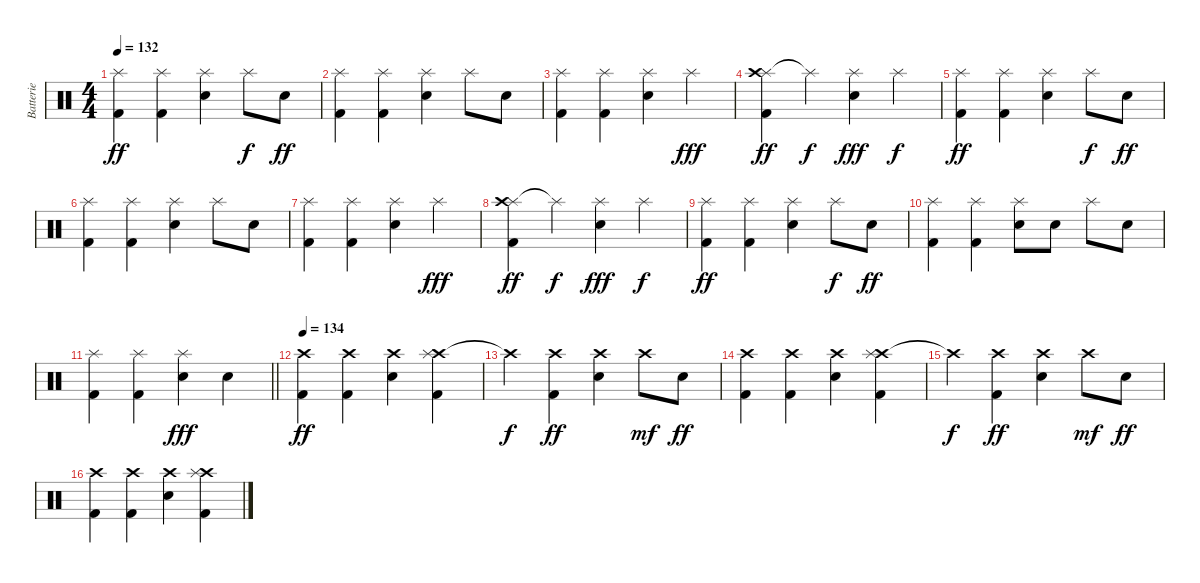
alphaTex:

\track ("Batterie" "Batterie") {instrument percussion}
\staff {score}
\articulation defaults
\ts (4 4)
\tempo 132
\clef neutral
\ks c
("Splash (hit)" "Kick (hit) 2").4{dy ff} ("Splash (hit)" "Kick (hit) 2").4 ("Splash (hit)" "Electric Snare (hit)").4 "Splash (hit)".8{dy f} "Electric Snare (hit)".8{dy ff} |
("Splash (hit)" "Kick (hit) 2").4 ("Splash (hit)" "Kick (hit) 2").4 ("Splash (hit)" "Electric Snare (hit)").4 "Splash (hit)".8 "Electric Snare (hit)".8 |
("Splash (hit)" "Kick (hit) 2").4 ("Splash (hit)" "Kick (hit) 2").4 ("Splash (hit)" "Electric Snare (hit)").4 "Splash (hit)".4{dy fff} |
("Splash (hit)" "Crash high (hit)" "Kick (hit) 2").4{dy ff} "Splash (hit)"{t}.4{dy f} ("Splash (hit)" "Electric Snare (hit)").4{dy fff} "Splash (hit)".4{dy f} |
("Splash (hit)" "Kick (hit) 2").4{dy ff} ("Splash (hit)" "Kick (hit) 2").4 ("Splash (hit)" "Electric Snare (hit)").4 "Splash (hit)".8{dy f} "Electric Snare (hit)".8{dy ff} |
("Splash (hit)" "Kick (hit) 2").4 ("Splash (hit)" "Kick (hit) 2").4 ("Splash (hit)" "Electric Snare (hit)").4 "Splash (hit)".8 "Electric Snare (hit)".8 |
("Splash (hit)" "Kick (hit) 2").4 ("Splash (hit)" "Kick (hit) 2").4 ("Splash (hit)" "Electric Snare (hit)").4 "Splash (hit)".4{dy fff} |
("Splash (hit)" "Crash high (hit)" "Kick (hit) 2").4{dy ff} "Splash (hit)"{t}.4{dy f} ("Splash (hit)" "Electric Snare (hit)").4{dy fff} "Splash (hit)".4{dy f} |
("Splash (hit)" "Kick (hit) 2").4{dy ff} ("Splash (hit)" "Kick (hit) 2").4 ("Splash (hit)" "Electric Snare (hit)").4 "Splash (hit)".8{dy f} "Electric Snare (hit)".8{dy ff} |
("Splash (hit)" "Kick (hit) 2").4 ("Splash (hit)" "Kick (hit) 2").4 ("Splash (hit)" "Electric Snare (hit)").8 "Electric Snare (hit)".8 "Splash (hit)".8 "Electric Snare (hit)".8 |
\barLineRight lightlight
("Splash (hit)" "Kick (hit) 2").4 ("Splash (hit)" "Kick (hit) 2").4 ("Splash (hit)" "Electric Snare (hit)").4{dy fff} "Electric Snare (hit)".4 |
\tempo 134
("Crash high (hit)" "Kick (hit) 2").4{dy ff} ("Crash high (hit)" "Kick (hit) 2").4 ("Crash high (hit)" "Electric Snare (hit)").4 ("Crash high (hit)" "Splash (hit)" "Kick (hit) 2").4 |
"Crash high (hit)"{t}.4{dy f} ("Crash high (hit)" "Kick (hit) 2").4{dy ff} ("Crash high (hit)" "Electric Snare (hit)").4 "Crash high (hit)".8{dy mf} "Electric Snare (hit)".8{dy ff} |
("Crash high (hit)" "Kick (hit) 2").4 ("Crash high (hit)" "Kick (hit) 2").4 ("Crash high (hit)" "Electric Snare (hit)").4 ("Crash high (hit)" "Splash (hit)" "Kick (hit) 2").4 |
"Crash high (hit)"{t}.4{dy f} ("Crash high (hit)" "Kick (hit) 2").4{dy ff} ("Crash high (hit)" "Electric Snare (hit)").4 "Crash high (hit)".8{dy mf} "Electric Snare (hit)".8{dy ff} |
("Crash high (hit)" "Kick (hit) 2").4 ("Crash high (hit)" "Kick (hit) 2").4 ("Crash high (hit)" "Electric Snare (hit)").4 ("Crash high (hit)" "Splash (hit)" "Kick (hit) 2").4
